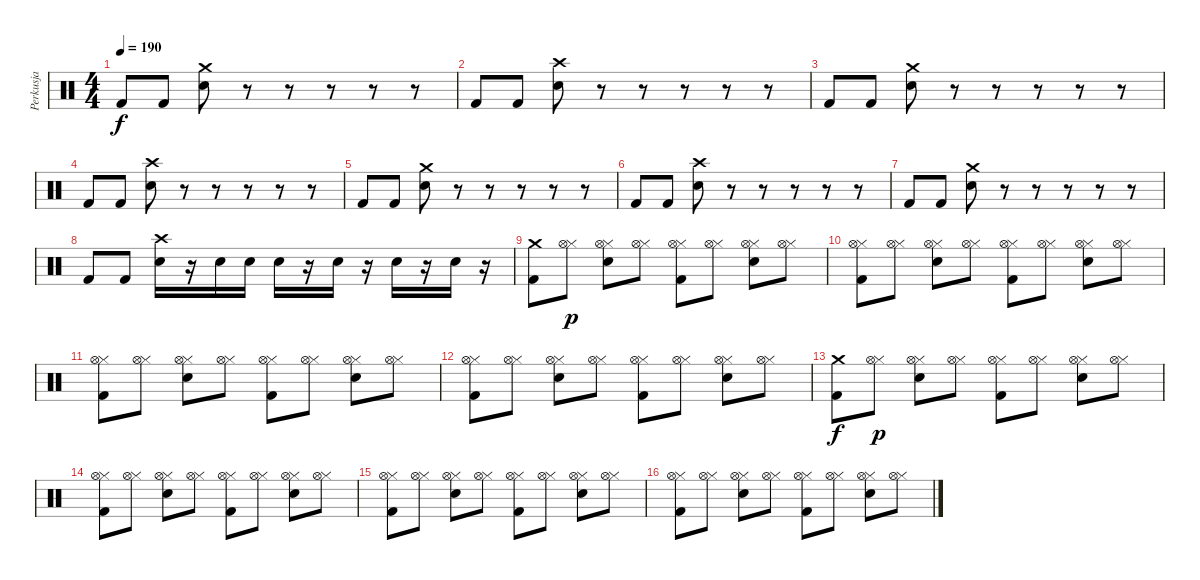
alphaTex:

\track ("Perkusja" "Perkusja") {instrument percussion}
\staff {score}
\articulation defaults
\ts (4 4)
\tempo 190
\clef neutral
\ks c "Kick (hit) 2".8{dy f} "Kick (hit) 2".8
("Electric Snare (hit)" "Crash medium (hit)").8 r.8 r.8 r.8 r.8 r.8 |
"Kick (hit) 2".8 "Kick (hit) 2".8 ("Electric Snare (hit)" "Crash high (hit)").8 r.8 r.8 r.8 r.8 r.8 |
"Kick (hit) 2".8 "Kick (hit) 2".8 ("Electric Snare (hit)" "Crash medium (hit)").8 r.8 r.8 r.8 r.8 r.8 |
"Kick (hit) 2".8 "Kick (hit) 2".8 ("Electric Snare (hit)" "Crash high (hit)").8 r.8 r.8 r.8 r.8 r.8 |
"Kick (hit) 2".8 "Kick (hit) 2".8 ("Electric Snare (hit)" "Crash medium (hit)").8 r.8 r.8 r.8 r.8 r.8 |
"Kick (hit) 2".8 "Kick (hit) 2".8 ("Electric Snare (hit)" "Crash high (hit)").8 r.8 r.8 r.8 r.8 r.8 |
"Kick (hit) 2".8 "Kick (hit) 2".8 ("Electric Snare (hit)" "Crash medium (hit)").8 r.8 r.8 r.8 r.8 r.8 |
"Kick (hit) 2".8 "Kick (hit) 2".8 ("Electric Snare (hit)" "Crash high (hit)").16 r.16 "Electric Snare (hit)".16 "Electric Snare (hit)".16 "Electric Snare (hit)".16 r.16 "Electric Snare (hit)".16 r.16 "Electric Snare (hit)".16 r.16 "Electric Snare (hit)".16 r.16 |
("Kick (hit) 2" "Crash medium (hit)").8 ("Hi-Hat (closed)" "Hi-Hat (open)").8{dy p} ("Electric Snare (hit)" "Hi-Hat (closed)" "Hi-Hat (open)").8 ("Hi-Hat (closed)" "Hi-Hat (open)").8 ("Kick (hit) 2" "Hi-Hat (closed)" "Hi-Hat (open)").8 ("Hi-Hat (closed)" "Hi-Hat (open)").8 ("Electric Snare (hit)" "Hi-Hat (closed)" "Hi-Hat (open)").8 ("Hi-Hat (closed)" "Hi-Hat (open)").8 |
("Kick (hit) 2" "Hi-Hat (closed)" "Hi-Hat (open)").8 ("Hi-Hat (closed)" "Hi-Hat (open)").8 ("Electric Snare (hit)" "Hi-Hat (closed)" "Hi-Hat (open)").8 ("Hi-Hat (closed)" "Hi-Hat (open)").8 ("Kick (hit) 2" "Hi-Hat (closed)" "Hi-Hat (open)").8 ("Hi-Hat (closed)" "Hi-Hat (open)").8 ("Electric Snare (hit)" "Hi-Hat (closed)" "Hi-Hat (open)").8 ("Hi-Hat (closed)" "Hi-Hat (open)").8 |
("Kick (hit) 2" "Hi-Hat (closed)" "Hi-Hat (open)").8 ("Hi-Hat (closed)" "Hi-Hat (open)").8 ("Electric Snare (hit)" "Hi-Hat (closed)" "Hi-Hat (open)").8 ("Hi-Hat (closed)" "Hi-Hat (open)").8 ("Kick (hit) 2" "Hi-Hat (closed)" "Hi-Hat (open)").8 ("Hi-Hat (closed)" "Hi-Hat (open)").8 ("Electric Snare (hit)" "Hi-Hat (closed)" "Hi-Hat (open)").8 ("Hi-Hat (closed)" "Hi-Hat (open)").8 |
("Kick (hit) 2" "Hi-Hat (closed)" "Hi-Hat (open)").8 ("Hi-Hat (closed)" "Hi-Hat (open)").8 ("Electric Snare (hit)" "Hi-Hat (closed)" "Hi-Hat (open)").8 ("Hi-Hat (closed)" "Hi-Hat (open)").8 ("Kick (hit) 2" "Hi-Hat (closed)" "Hi-Hat (open)").8 ("Hi-Hat (closed)" "Hi-Hat (open)").8 ("Electric Snare (hit)" "Hi-Hat (closed)" "Hi-Hat (open)").8 ("Hi-Hat (closed)" "Hi-Hat (open)").8 |
("Kick (hit) 2" "Crash medium (hit)").8{dy f} ("Hi-Hat (closed)" "Hi-Hat (open)").8{dy p} ("Electric Snare (hit)" "Hi-Hat (closed)" "Hi-Hat (open)").8 ("Hi-Hat (closed)" "Hi-Hat (open)").8 ("Kick (hit) 2" "Hi-Hat (closed)" "Hi-Hat (open)").8 ("Hi-Hat (closed)" "Hi-Hat (open)").8 ("Electric Snare (hit)" "Hi-Hat (closed)" "Hi-Hat (open)").8 ("Hi-Hat (closed)" "Hi-Hat (open)").8 |
("Kick (hit) 2" "Hi-Hat (closed)" "Hi-Hat (open)").8 ("Hi-Hat (closed)" "Hi-Hat (open)").8 ("Electric Snare (hit)" "Hi-Hat (closed)" "Hi-Hat (open)").8 ("Hi-Hat (closed)" "Hi-Hat (open)").8 ("Kick (hit) 2" "Hi-Hat (closed)" "Hi-Hat (open)").8 ("Hi-Hat (closed)" "Hi-Hat (open)").8 ("Electric Snare (hit)" "Hi-Hat (closed)" "Hi-Hat (open)").8 ("Hi-Hat (closed)" "Hi-Hat (open)").8 |
("Kick (hit) 2" "Hi-Hat (closed)" "Hi-Hat (open)").8 ("Hi-Hat (closed)" "Hi-Hat (open)").8 ("Electric Snare (hit)" "Hi-Hat (closed)" "Hi-Hat (open)").8 ("Hi-Hat (closed)" "Hi-Hat (open)").8 ("Kick (hit) 2" "Hi-Hat (closed)" "Hi-Hat (open)").8 ("Hi-Hat (closed)" "Hi-Hat (open)").8 ("Electric Snare (hit)" "Hi-Hat (closed)" "Hi-Hat (open)").8 ("Hi-Hat (closed)" "Hi-Hat (open)").8 |
("Kick (hit) 2" "Hi-Hat (closed)" "Hi-Hat (open)").8 ("Hi-Hat (closed)" "Hi-Hat (open)").8 ("Electric Snare (hit)" "Hi-Hat (closed)" "Hi-Hat (open)").8 ("Hi-Hat (closed)" "Hi-Hat (open)").8 ("Kick (hit) 2" "Hi-Hat (closed)" "Hi-Hat (open)").8 ("Hi-Hat (closed)" "Hi-Hat (open)").8 ("Electric Snare (hit)" "Hi-Hat (closed)" "Hi-Hat (open)").8 ("Hi-Hat (closed)" "Hi-Hat (open)").8
